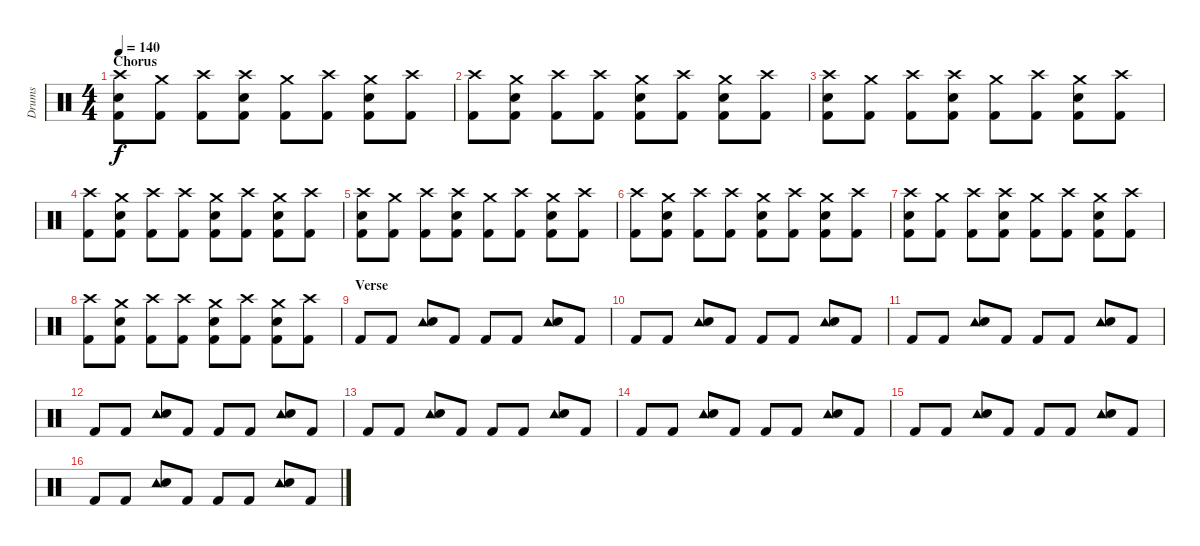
\track ("Drums" "Drums") {instrument percussion}
\staff {score}
\articulation defaults
\ts (4 4)
\section ("" "Chorus")
\tempo 140
\clef neutral
\ks c
("Crash high (hit)" "Electric Snare (hit)" "Kick (hit) 2").8{dy f} ("Crash medium (hit)" "Kick (hit) 2").8 ("Crash high (hit)" "Kick (hit) 2").8 ("Crash high (hit)" "Electric Snare (hit)" "Kick (hit) 2").8 ("Crash medium (hit)" "Kick (hit) 2").8 ("Crash high (hit)" "Kick (hit) 2").8 ("Crash medium (hit)" "Electric Snare (hit)" "Kick (hit) 2").8 ("Crash high (hit)" "Kick (hit) 2").8 |
("Crash high (hit)" "Kick (hit) 2").8 ("Crash medium (hit)" "Electric Snare (hit)" "Kick (hit) 2").8 ("Crash high (hit)" "Kick (hit) 2").8 ("Crash high (hit)" "Kick (hit) 2").8 ("Crash medium (hit)" "Electric Snare (hit)" "Kick (hit) 2").8 ("Crash high (hit)" "Kick (hit) 2").8 ("Crash medium (hit)" "Electric Snare (hit)" "Kick (hit) 2").8 ("Crash high (hit)" "Kick (hit) 2").8 |
("Crash high (hit)" "Electric Snare (hit)" "Kick (hit) 2").8 ("Crash medium (hit)" "Kick (hit) 2").8 ("Crash high (hit)" "Kick (hit) 2").8 ("Crash high (hit)" "Electric Snare (hit)" "Kick (hit) 2").8 ("Crash medium (hit)" "Kick (hit) 2").8 ("Crash high (hit)" "Kick (hit) 2").8 ("Crash medium (hit)" "Electric Snare (hit)" "Kick (hit) 2").8 ("Crash high (hit)" "Kick (hit) 2").8 |
("Crash high (hit)" "Kick (hit) 2").8 ("Crash medium (hit)" "Electric Snare (hit)" "Kick (hit) 2").8 ("Crash high (hit)" "Kick (hit) 2").8 ("Crash high (hit)" "Kick (hit) 2").8 ("Crash medium (hit)" "Electric Snare (hit)" "Kick (hit) 2").8 ("Crash high (hit)" "Kick (hit) 2").8 ("Crash medium (hit)" "Electric Snare (hit)" "Kick (hit) 2").8 ("Crash high (hit)" "Kick (hit) 2").8 |
("Crash high (hit)" "Electric Snare (hit)" "Kick (hit) 2").8 ("Crash medium (hit)" "Kick (hit) 2").8 ("Crash high (hit)" "Kick (hit) 2").8 ("Crash high (hit)" "Electric Snare (hit)" "Kick (hit) 2").8 ("Crash medium (hit)" "Kick (hit) 2").8 ("Crash high (hit)" "Kick (hit) 2").8 ("Crash medium (hit)" "Electric Snare (hit)" "Kick (hit) 2").8 ("Crash high (hit)" "Kick (hit) 2").8 |
("Crash high (hit)" "Kick (hit) 2").8 ("Crash medium (hit)" "Electric Snare (hit)" "Kick (hit) 2").8 ("Crash high (hit)" "Kick (hit) 2").8 ("Crash high (hit)" "Kick (hit) 2").8 ("Crash medium (hit)" "Electric Snare (hit)" "Kick (hit) 2").8 ("Crash high (hit)" "Kick (hit) 2").8 ("Crash medium (hit)" "Electric Snare (hit)" "Kick (hit) 2").8 ("Crash high (hit)" "Kick (hit) 2").8 |
("Crash high (hit)" "Electric Snare (hit)" "Kick (hit) 2").8 ("Crash medium (hit)" "Kick (hit) 2").8 ("Crash high (hit)" "Kick (hit) 2").8 ("Crash high (hit)" "Electric Snare (hit)" "Kick (hit) 2").8 ("Crash medium (hit)" "Kick (hit) 2").8 ("Crash high (hit)" "Kick (hit) 2").8 ("Crash medium (hit)" "Electric Snare (hit)" "Kick (hit) 2").8 ("Crash high (hit)" "Kick (hit) 2").8 |
("Crash high (hit)" "Kick (hit) 2").8 ("Crash medium (hit)" "Electric Snare (hit)" "Kick (hit) 2").8 ("Crash high (hit)" "Kick (hit) 2").8 ("Crash high (hit)" "Kick (hit) 2").8 ("Crash medium (hit)" "Electric Snare (hit)" "Kick (hit) 2").8 ("Crash high (hit)" "Kick (hit) 2").8 ("Crash medium (hit)" "Electric Snare (hit)" "Kick (hit) 2").8 ("Crash high (hit)" "Kick (hit) 2").8 |
\section ("" "Verse")
"Kick (hit) 2".8 "Kick (hit) 2".8 ("Tambourine (hit)" "Electric Snare (hit)").8 "Kick (hit) 2".8 "Kick (hit) 2".8 "Kick (hit) 2".8 ("Tambourine (hit)" "Electric Snare (hit)").8 "Kick (hit) 2".8 |
"Kick (hit) 2".8 "Kick (hit) 2".8 ("Tambourine (hit)" "Electric Snare (hit)").8 "Kick (hit) 2".8 "Kick (hit) 2".8 "Kick (hit) 2".8 ("Tambourine (hit)" "Electric Snare (hit)").8 "Kick (hit) 2".8 |
"Kick (hit) 2".8 "Kick (hit) 2".8 ("Tambourine (hit)" "Electric Snare (hit)").8 "Kick (hit) 2".8 "Kick (hit) 2".8 "Kick (hit) 2".8 ("Tambourine (hit)" "Electric Snare (hit)").8 "Kick (hit) 2".8 |
"Kick (hit) 2".8 "Kick (hit) 2".8 ("Tambourine (hit)" "Electric Snare (hit)").8 "Kick (hit) 2".8 "Kick (hit) 2".8 "Kick (hit) 2".8 ("Tambourine (hit)" "Electric Snare (hit)").8 "Kick (hit) 2".8 |
"Kick (hit) 2".8 "Kick (hit) 2".8 ("Tambourine (hit)" "Electric Snare (hit)").8 "Kick (hit) 2".8 "Kick (hit) 2".8 "Kick (hit) 2".8 ("Tambourine (hit)" "Electric Snare (hit)").8 "Kick (hit) 2".8 |
"Kick (hit) 2".8 "Kick (hit) 2".8 ("Tambourine (hit)" "Electric Snare (hit)").8 "Kick (hit) 2".8 "Kick (hit) 2".8 "Kick (hit) 2".8 ("Tambourine (hit)" "Electric Snare (hit)").8 "Kick (hit) 2".8 |
"Kick (hit) 2".8 "Kick (hit) 2".8 ("Tambourine (hit)" "Electric Snare (hit)").8 "Kick (hit) 2".8 "Kick (hit) 2".8 "Kick (hit) 2".8 ("Tambourine (hit)" "Electric Snare (hit)").8 "Kick (hit) 2".8 |
"Kick (hit) 2".8 "Kick (hit) 2".8 ("Tambourine (hit)" "Electric Snare (hit)").8 "Kick (hit) 2".8 "Kick (hit) 2".8 "Kick (hit) 2".8 ("Tambourine (hit)" "Electric Snare (hit)").8 "Kick (hit) 2".8
